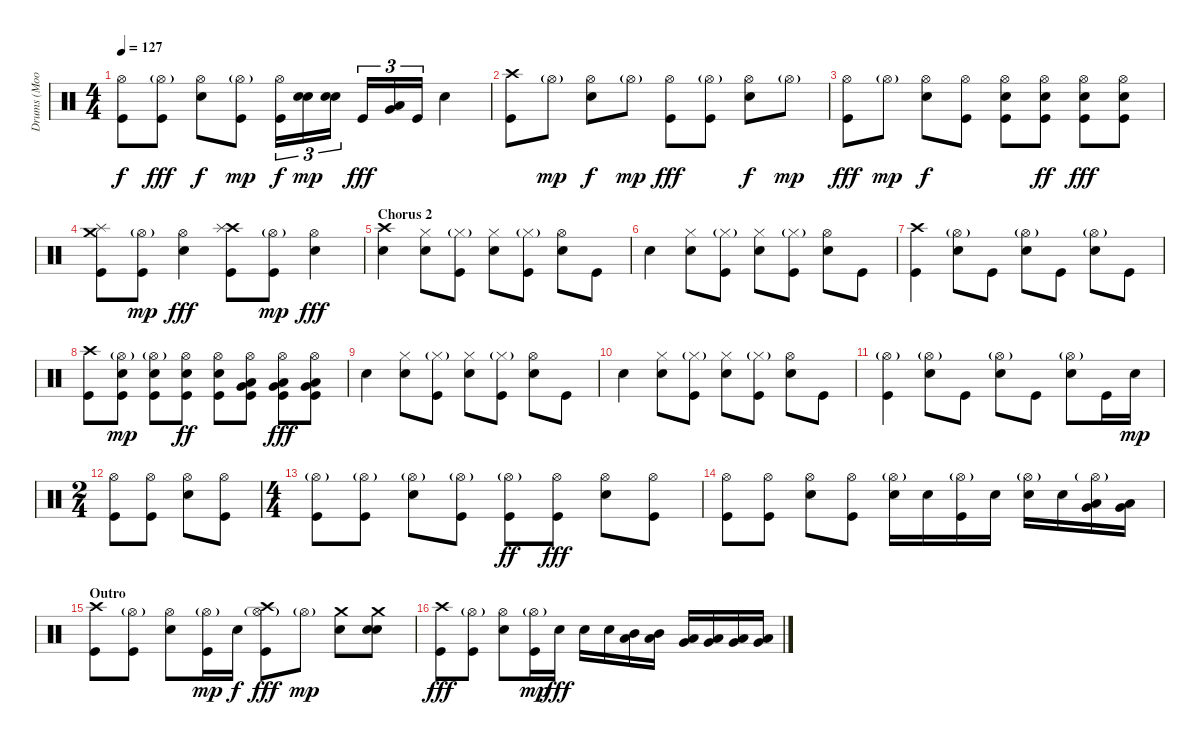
\track ("Drums (Moon)" "Drums (Moo") {instrument percussion}
\staff {score}
\articulation defaults
\ts (4 4)
\tempo 127
\clef neutral
\ks c
("Hi-Hat (open)" "Kick (hit)").8{dy f} ("Hi-Hat (open)"{g} "Kick (hit)").8{dy fff} ("Hi-Hat (open)" "Electric Snare (hit)").8{dy f} ("Hi-Hat (open)"{g} "Kick (hit)").8{dy mp} ("Hi-Hat (open)" "Kick (hit)").16{tu (3 2) dy f} ("Electric Snare (hit)" "Snare (hit) 2").16{tu (3 2) dy mp} ("Electric Snare (hit)" "Snare (hit) 2").16{tu (3 2)} "Kick (hit)".16{tu (3 2) dy fff} ("Very Low Tom (hit)" "Low Floor Tom (hit)").16{tu (3 2)} "Kick (hit)".16{tu (3 2)} "Electric Snare (hit)".4 |
("Crash high (hit)" "Kick (hit)").8 "Hi-Hat (open)"{g}.8{dy mp} ("Hi-Hat (open)" "Electric Snare (hit)").8{dy f} "Hi-Hat (open)"{g}.8{dy mp} ("Hi-Hat (open)" "Kick (hit)").8{dy fff} ("Hi-Hat (open)"{g} "Kick (hit)").8 ("Hi-Hat (open)" "Electric Snare (hit)").8{dy f} "Hi-Hat (open)"{g}.8{dy mp} |
("Hi-Hat (open)" "Kick (hit)").8{dy fff} "Hi-Hat (open)"{g}.8{dy mp} ("Hi-Hat (open)" "Electric Snare (hit)").8{dy f} ("Hi-Hat (open)" "Kick (hit)").8 ("Hi-Hat (open)" "Electric Snare (hit)" "Kick (hit)").8 ("Hi-Hat (open)" "Electric Snare (hit)" "Kick (hit)").8{dy ff} ("Hi-Hat (open)" "Electric Snare (hit)" "Kick (hit)").8{dy fff} ("Hi-Hat (open)" "Electric Snare (hit)" "Kick (hit)").8 |
("Crash medium (hit)" "Splash (hit)" "Kick (hit)").8 ("Hi-Hat (open)"{g} "Kick (hit)").8{dy mp} ("Hi-Hat (open)" "Electric Snare (hit)").4{dy fff} ("Crash high (hit)" "Splash (hit)" "Kick (hit)").8 ("Hi-Hat (open)"{g} "Kick (hit)").8{dy mp} ("Hi-Hat (open)" "Electric Snare (hit)").4{dy fff} |
\section ("" "Chorus 2")
("Crash high (hit)" "Electric Snare (hit)").4 ("Hi-Hat (closed)" "Electric Snare (hit)").8 ("Hi-Hat (closed)"{g} "Kick (hit)").8 ("Hi-Hat (closed)" "Electric Snare (hit)").8 ("Hi-Hat (closed)"{g} "Kick (hit)").8 ("Hi-Hat (open)" "Electric Snare (hit)").8 "Kick (hit)".8 |
"Electric Snare (hit)".4 ("Hi-Hat (closed)" "Electric Snare (hit)").8 ("Hi-Hat (closed)"{g} "Kick (hit)").8 ("Hi-Hat (closed)" "Electric Snare (hit)").8 ("Hi-Hat (closed)"{g} "Kick (hit)").8 ("Hi-Hat (open)" "Electric Snare (hit)").8 "Kick (hit)".8 |
("Crash high (hit)" "Kick (hit)").4 ("Hi-Hat (open)"{g} "Electric Snare (hit)").8 "Kick (hit)".8 ("Hi-Hat (open)"{g} "Electric Snare (hit)").8 "Kick (hit)".8 ("Hi-Hat (open)"{g} "Electric Snare (hit)").8 "Kick (hit)".8 |
("Crash high (hit)" "Kick (hit)").8 ("Hi-Hat (open)"{g} "Electric Snare (hit)" "Kick (hit)").8{dy mp} ("Hi-Hat (open)"{g} "Electric Snare (hit)" "Kick (hit)").8 ("Hi-Hat (open)" "Electric Snare (hit)" "Kick (hit)").8{dy ff} ("Hi-Hat (open)" "Electric Snare (hit)" "Kick (hit)").8 ("Hi-Hat (open)" "Low Tom (hit)" "Very Low Tom (hit)" "Kick (hit)").8 ("Hi-Hat (open)" "Low Tom (hit)" "Very Low Tom (hit)" "Kick (hit)").8{dy fff} ("Hi-Hat (open)" "Low Tom (hit)" "Very Low Tom (hit)" "Kick (hit)").8 |
"Electric Snare (hit)".4 ("Hi-Hat (closed)" "Electric Snare (hit)").8 ("Hi-Hat (closed)"{g} "Kick (hit)").8 ("Hi-Hat (closed)" "Electric Snare (hit)").8 ("Hi-Hat (closed)"{g} "Kick (hit)").8 ("Hi-Hat (open)" "Electric Snare (hit)").8 "Kick (hit)".8 |
"Electric Snare (hit)".4 ("Hi-Hat (closed)" "Electric Snare (hit)").8 ("Hi-Hat (closed)"{g} "Kick (hit)").8 ("Hi-Hat (closed)" "Electric Snare (hit)").8 ("Hi-Hat (closed)"{g} "Kick (hit)").8 ("Hi-Hat (open)" "Electric Snare (hit)").8 "Kick (hit)".8 |
("Hi-Hat (open)"{g} "Kick (hit)").4 ("Hi-Hat (open)"{g} "Electric Snare (hit)").8 "Kick (hit)".8 ("Hi-Hat (open)"{g} "Electric Snare (hit)").8 "Kick (hit)".8 ("Hi-Hat (open)"{g} "Electric Snare (hit)").8 "Kick (hit)".16 "Electric Snare (hit)".16{dy mp} |
\ts (2 4)
("Hi-Hat (open)" "Kick (hit)").8 ("Hi-Hat (open)" "Kick (hit)").8 ("Hi-Hat (open)" "Electric Snare (hit)").8 ("Hi-Hat (open)" "Kick (hit)").8 |
\ts (4 4)
("Hi-Hat (open)"{g} "Kick (hit)").8 ("Hi-Hat (open)"{g} "Kick (hit)").8 ("Hi-Hat (open)"{g} "Electric Snare (hit)").8 ("Hi-Hat (open)"{g} "Kick (hit)").8 ("Hi-Hat (open)"{g} "Kick (hit)").8{dy ff} ("Hi-Hat (open)" "Kick (hit)").8{dy fff} ("Hi-Hat (open)" "Electric Snare (hit)").8 ("Hi-Hat (open)" "Kick (hit)").8 |
("Hi-Hat (open)" "Kick (hit)").8{volume 13} ("Hi-Hat (open)" "Kick (hit)").8 ("Hi-Hat (open)" "Electric Snare (hit)").8 ("Hi-Hat (open)" "Kick (hit)").8 ("Hi-Hat (open)"{g} "Electric Snare (hit)").16 "Electric Snare (hit)".16 ("Hi-Hat (open)"{g} "Kick (hit)").16 "Electric Snare (hit)".16 ("Hi-Hat (open)"{g} "Electric Snare (hit)").16 "Electric Snare (hit)".16 ("Hi-Hat (open)"{g} "Low Tom (hit)" "Very Low Tom (hit)").16 ("Low Tom (hit)" "Very Low Tom (hit)").16 |
\section ("" "Outro")
("Crash high (hit)" "Kick (hit)").8{volume 14} ("Hi-Hat (open)"{g} "Kick (hit)").8 ("Hi-Hat (open)" "Electric Snare (hit)").8 ("Hi-Hat (open)"{g} "Kick (hit)").16{dy mp} "Electric Snare (hit)".16{dy f} ("Crash high (hit)" "Hi-Hat (open)"{g} "Kick (hit)").8{dy fff} "Hi-Hat (open)"{g}.8{dy mp} ("Crash medium (hit)" "Electric Snare (hit)").8 ("Crash medium (hit)" "Electric Snare (hit)" "Snare (hit) 2").8 |
("Crash high (hit)" "Kick (hit)").8{dy fff} ("Hi-Hat (open)"{g} "Kick (hit)").8 ("Hi-Hat (open)" "Electric Snare (hit)").8 ("Hi-Hat (open)"{g} "Kick (hit)").16{dy mp} "Electric Snare (hit)".16{dy fff} "Electric Snare (hit)".16 "Electric Snare (hit)".16 ("Mid Tom (hit)" "Low Tom (hit)").16 ("Mid Tom (hit)" "Low Tom (hit)").16 ("Low Tom (hit)" "Very Low Tom (hit)").16 ("Low Tom (hit)" "Very Low Tom (hit)").16 ("Very Low Tom (hit)" "Low Floor Tom (hit)").16 ("Very Low Tom (hit)" "Low Floor Tom (hit)").16
